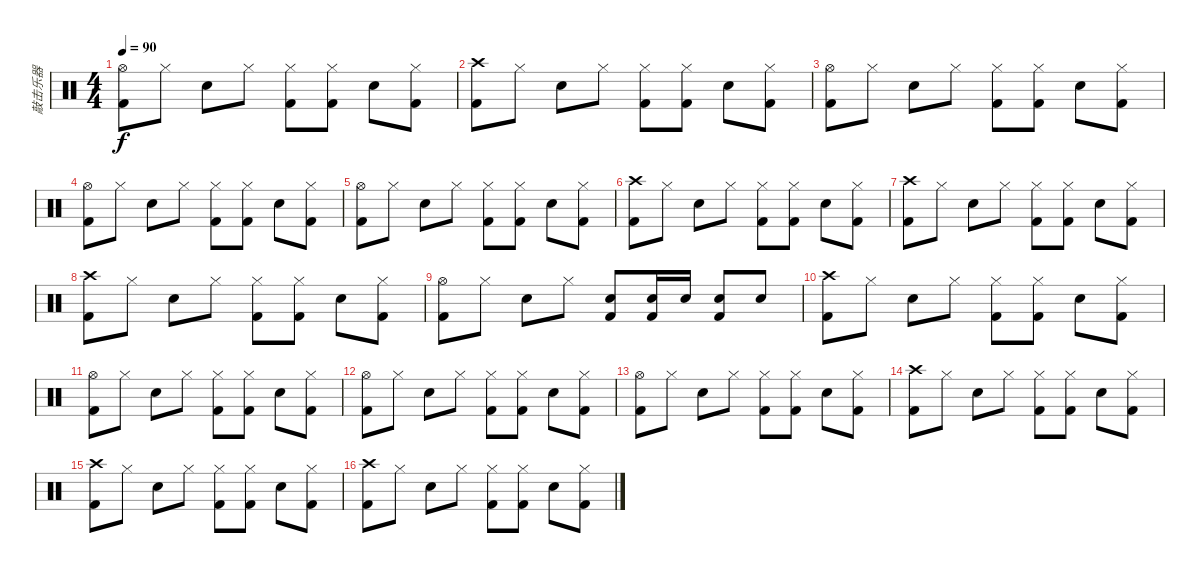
\track ("敲击乐器" "敲击乐器") {instrument percussion bank 8}
\staff {score}
\articulation defaults
\ts (4 4)
\tempo 90
\clef neutral
\ks c
("Hi-Hat (open)" "Kick (hit) 2").8{dy f} "Hi-Hat (closed)".8 "Electric Snare (hit)".8 "Hi-Hat (closed)".8 ("Hi-Hat (closed)" "Kick (hit) 2").8 ("Hi-Hat (closed)" "Kick (hit) 2").8 "Electric Snare (hit)".8 ("Hi-Hat (closed)" "Kick (hit) 2").8 |
("Crash high (hit)" "Kick (hit) 2").8 "Hi-Hat (closed)".8 "Electric Snare (hit)".8 "Hi-Hat (closed)".8 ("Hi-Hat (closed)" "Kick (hit) 2").8 ("Hi-Hat (closed)" "Kick (hit) 2").8 "Electric Snare (hit)".8 ("Hi-Hat (closed)" "Kick (hit) 2").8 |
("Hi-Hat (open)" "Kick (hit) 2").8 "Hi-Hat (closed)".8 "Electric Snare (hit)".8 "Hi-Hat (closed)".8 ("Hi-Hat (closed)" "Kick (hit) 2").8 ("Hi-Hat (closed)" "Kick (hit) 2").8 "Electric Snare (hit)".8 ("Hi-Hat (closed)" "Kick (hit) 2").8 |
("Hi-Hat (open)" "Kick (hit) 2").8 "Hi-Hat (closed)".8 "Electric Snare (hit)".8 "Hi-Hat (closed)".8 ("Hi-Hat (closed)" "Kick (hit) 2").8 ("Hi-Hat (closed)" "Kick (hit) 2").8 "Electric Snare (hit)".8 ("Hi-Hat (closed)" "Kick (hit) 2").8 |
("Hi-Hat (open)" "Kick (hit) 2").8 "Hi-Hat (closed)".8 "Electric Snare (hit)".8 "Hi-Hat (closed)".8 ("Hi-Hat (closed)" "Kick (hit) 2").8 ("Hi-Hat (closed)" "Kick (hit) 2").8 "Electric Snare (hit)".8 ("Hi-Hat (closed)" "Kick (hit) 2").8 |
("Crash high (hit)" "Kick (hit) 2").8 "Hi-Hat (closed)".8 "Electric Snare (hit)".8 "Hi-Hat (closed)".8 ("Hi-Hat (closed)" "Kick (hit) 2").8 ("Hi-Hat (closed)" "Kick (hit) 2").8 "Electric Snare (hit)".8 ("Hi-Hat (closed)" "Kick (hit) 2").8 |
("Crash high (hit)" "Kick (hit) 2").8 "Hi-Hat (closed)".8 "Electric Snare (hit)".8 "Hi-Hat (closed)".8 ("Hi-Hat (closed)" "Kick (hit) 2").8 ("Hi-Hat (closed)" "Kick (hit) 2").8 "Electric Snare (hit)".8 ("Hi-Hat (closed)" "Kick (hit) 2").8 |
("Crash high (hit)" "Kick (hit) 2").8 "Hi-Hat (closed)".8 "Electric Snare (hit)".8 "Hi-Hat (closed)".8 ("Hi-Hat (closed)" "Kick (hit) 2").8 ("Hi-Hat (closed)" "Kick (hit) 2").8 "Electric Snare (hit)".8 ("Hi-Hat (closed)" "Kick (hit) 2").8 |
("Hi-Hat (open)" "Kick (hit) 2").8 "Hi-Hat (closed)".8 "Electric Snare (hit)".8 "Hi-Hat (closed)".8 ("Electric Snare (hit)" "Kick (hit) 2").8 ("Electric Snare (hit)" "Kick (hit) 2").16 "Electric Snare (hit)".16 ("Electric Snare (hit)" "Kick (hit) 2").8 "Electric Snare (hit)".8 |
("Crash high (hit)" "Kick (hit) 2").8 "Hi-Hat (closed)".8 "Electric Snare (hit)".8 "Hi-Hat (closed)".8 ("Hi-Hat (closed)" "Kick (hit) 2").8 ("Hi-Hat (closed)" "Kick (hit) 2").8 "Electric Snare (hit)".8 ("Hi-Hat (closed)" "Kick (hit) 2").8 |
("Hi-Hat (open)" "Kick (hit) 2").8 "Hi-Hat (closed)".8 "Electric Snare (hit)".8 "Hi-Hat (closed)".8 ("Hi-Hat (closed)" "Kick (hit) 2").8 ("Hi-Hat (closed)" "Kick (hit) 2").8 "Electric Snare (hit)".8 ("Hi-Hat (closed)" "Kick (hit) 2").8 |
("Hi-Hat (open)" "Kick (hit) 2").8 "Hi-Hat (closed)".8 "Electric Snare (hit)".8 "Hi-Hat (closed)".8 ("Hi-Hat (closed)" "Kick (hit) 2").8 ("Hi-Hat (closed)" "Kick (hit) 2").8 "Electric Snare (hit)".8 ("Hi-Hat (closed)" "Kick (hit) 2").8 |
("Hi-Hat (open)" "Kick (hit) 2").8 "Hi-Hat (closed)".8 "Electric Snare (hit)".8 "Hi-Hat (closed)".8 ("Hi-Hat (closed)" "Kick (hit) 2").8 ("Hi-Hat (closed)" "Kick (hit) 2").8 "Electric Snare (hit)".8 ("Hi-Hat (closed)" "Kick (hit) 2").8 |
("Crash high (hit)" "Kick (hit) 2").8 "Hi-Hat (closed)".8 "Electric Snare (hit)".8 "Hi-Hat (closed)".8 ("Hi-Hat (closed)" "Kick (hit) 2").8 ("Hi-Hat (closed)" "Kick (hit) 2").8 "Electric Snare (hit)".8 ("Hi-Hat (closed)" "Kick (hit) 2").8 |
("Crash high (hit)" "Kick (hit) 2").8 "Hi-Hat (closed)".8 "Electric Snare (hit)".8 "Hi-Hat (closed)".8 ("Hi-Hat (closed)" "Kick (hit) 2").8 ("Hi-Hat (closed)" "Kick (hit) 2").8 "Electric Snare (hit)".8 ("Hi-Hat (closed)" "Kick (hit) 2").8 |
("Crash high (hit)" "Kick (hit) 2").8 "Hi-Hat (closed)".8 "Electric Snare (hit)".8 "Hi-Hat (closed)".8 ("Hi-Hat (closed)" "Kick (hit) 2").8 ("Hi-Hat (closed)" "Kick (hit) 2").8 "Electric Snare (hit)".8 ("Hi-Hat (closed)" "Kick (hit) 2").8
